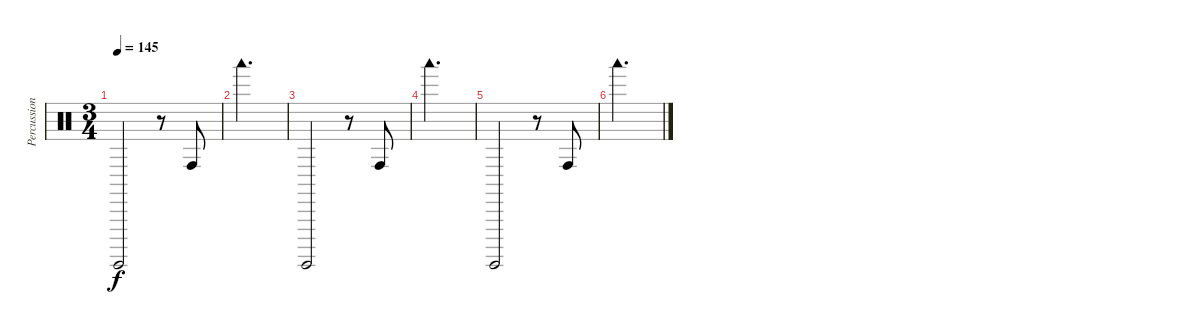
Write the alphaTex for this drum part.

\track ("Percussion" "Percussion") {instrument percussion}
\staff {score}
\articulation defaults
\ts (3 4)
\tempo 145
\clef neutral
\ks c "Surdo (hit)".2{dy f}
r.8 "Conga high (hit)".8 |
"Woodblock low (hit)".2{d} |
"Surdo (hit)".2 r.8 "Conga high (hit)".8 |
"Woodblock low (hit)".2{d} |
"Surdo (hit)".2 r.8 "Conga high (hit)".8 |
"Woodblock low (hit)".2{d}
